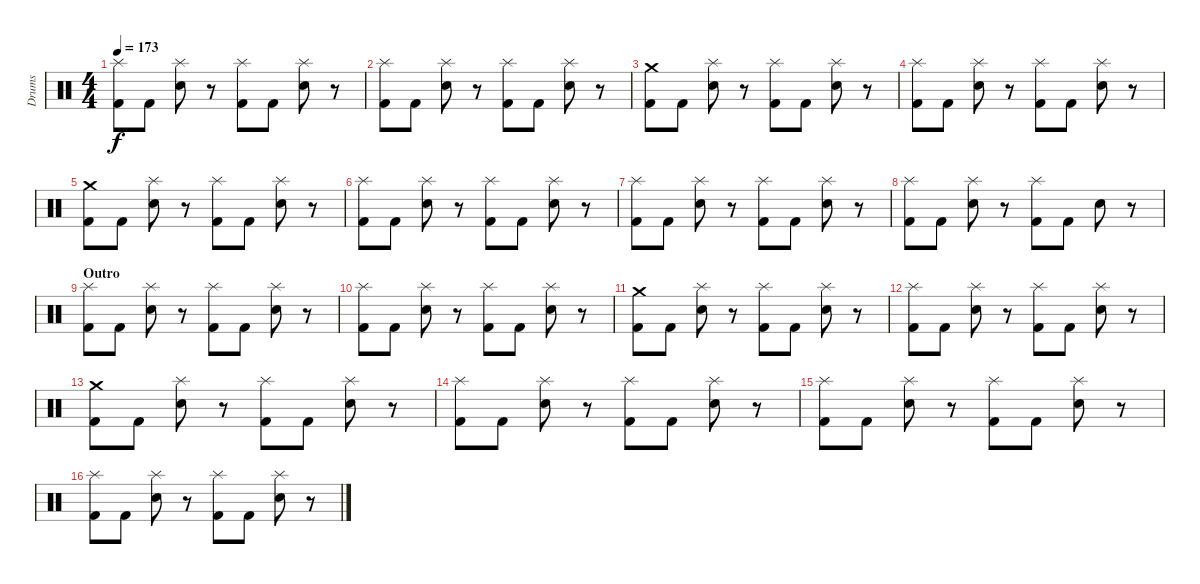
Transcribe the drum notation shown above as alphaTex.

\track ("Drums" "Drums") {instrument percussion}
\staff {score}
\articulation defaults
\ts (4 4)
\tempo 173
\clef neutral
\ks c
("Splash (hit)" "Kick (hit) 2").8{dy f} "Kick (hit) 2".8 ("Splash (hit)" "Snare (hit) 2").8 r.8 ("Splash (hit)" "Kick (hit) 2").8 "Kick (hit) 2".8 ("Splash (hit)" "Snare (hit) 2").8 r.8 |
("Splash (hit)" "Kick (hit) 2").8 "Kick (hit) 2".8 ("Splash (hit)" "Snare (hit) 2").8 r.8 ("Splash (hit)" "Kick (hit) 2").8 "Kick (hit) 2".8 ("Splash (hit)" "Snare (hit) 2").8 r.8 |
("Crash medium (hit)" "Kick (hit) 2").8 "Kick (hit) 2".8 ("Splash (hit)" "Snare (hit) 2").8 r.8 ("Splash (hit)" "Kick (hit) 2").8 "Kick (hit) 2".8 ("Splash (hit)" "Snare (hit) 2").8 r.8 |
("Splash (hit)" "Kick (hit) 2").8 "Kick (hit) 2".8 ("Splash (hit)" "Snare (hit) 2").8 r.8 ("Splash (hit)" "Kick (hit) 2").8 "Kick (hit) 2".8 ("Splash (hit)" "Snare (hit) 2").8 r.8 |
("Crash medium (hit)" "Kick (hit) 2").8 "Kick (hit) 2".8 ("Splash (hit)" "Snare (hit) 2").8 r.8 ("Splash (hit)" "Kick (hit) 2").8 "Kick (hit) 2".8 ("Splash (hit)" "Snare (hit) 2").8 r.8 |
("Splash (hit)" "Kick (hit) 2").8 "Kick (hit) 2".8 ("Splash (hit)" "Snare (hit) 2").8 r.8 ("Splash (hit)" "Kick (hit) 2").8 "Kick (hit) 2".8 ("Splash (hit)" "Snare (hit) 2").8 r.8 |
("Splash (hit)" "Kick (hit) 2").8 "Kick (hit) 2".8 ("Splash (hit)" "Snare (hit) 2").8 r.8 ("Splash (hit)" "Kick (hit) 2").8 "Kick (hit) 2".8 ("Splash (hit)" "Snare (hit) 2").8 r.8 |
("Splash (hit)" "Kick (hit) 2").8 "Kick (hit) 2".8 ("Splash (hit)" "Snare (hit) 2").8 r.8 ("Splash (hit)" "Kick (hit) 2").8 "Kick (hit) 2".8 "Snare (hit) 2".8 r.8 |
\section ("" "Outro")
("Splash (hit)" "Kick (hit) 2").8 "Kick (hit) 2".8 ("Splash (hit)" "Snare (hit) 2").8 r.8 ("Splash (hit)" "Kick (hit) 2").8 "Kick (hit) 2".8 ("Splash (hit)" "Snare (hit) 2").8 r.8 |
("Splash (hit)" "Kick (hit) 2").8 "Kick (hit) 2".8 ("Splash (hit)" "Snare (hit) 2").8 r.8 ("Splash (hit)" "Kick (hit) 2").8 "Kick (hit) 2".8 ("Splash (hit)" "Snare (hit) 2").8 r.8 |
("Crash medium (hit)" "Kick (hit) 2").8 "Kick (hit) 2".8 ("Splash (hit)" "Snare (hit) 2").8 r.8 ("Splash (hit)" "Kick (hit) 2").8 "Kick (hit) 2".8 ("Splash (hit)" "Snare (hit) 2").8 r.8 |
("Splash (hit)" "Kick (hit) 2").8 "Kick (hit) 2".8 ("Splash (hit)" "Snare (hit) 2").8 r.8 ("Splash (hit)" "Kick (hit) 2").8 "Kick (hit) 2".8 ("Splash (hit)" "Snare (hit) 2").8 r.8 |
("Crash medium (hit)" "Kick (hit) 2").8 "Kick (hit) 2".8 ("Splash (hit)" "Snare (hit) 2").8 r.8 ("Splash (hit)" "Kick (hit) 2").8 "Kick (hit) 2".8 ("Splash (hit)" "Snare (hit) 2").8 r.8 |
("Splash (hit)" "Kick (hit) 2").8 "Kick (hit) 2".8 ("Splash (hit)" "Snare (hit) 2").8 r.8 ("Splash (hit)" "Kick (hit) 2").8 "Kick (hit) 2".8 ("Splash (hit)" "Snare (hit) 2").8 r.8 |
("Splash (hit)" "Kick (hit) 2").8 "Kick (hit) 2".8 ("Splash (hit)" "Snare (hit) 2").8 r.8 ("Splash (hit)" "Kick (hit) 2").8 "Kick (hit) 2".8 ("Splash (hit)" "Snare (hit) 2").8 r.8 |
("Splash (hit)" "Kick (hit) 2").8 "Kick (hit) 2".8 ("Splash (hit)" "Snare (hit) 2").8 r.8 ("Splash (hit)" "Kick (hit) 2").8 "Kick (hit) 2".8 ("Splash (hit)" "Snare (hit) 2").8 r.8
